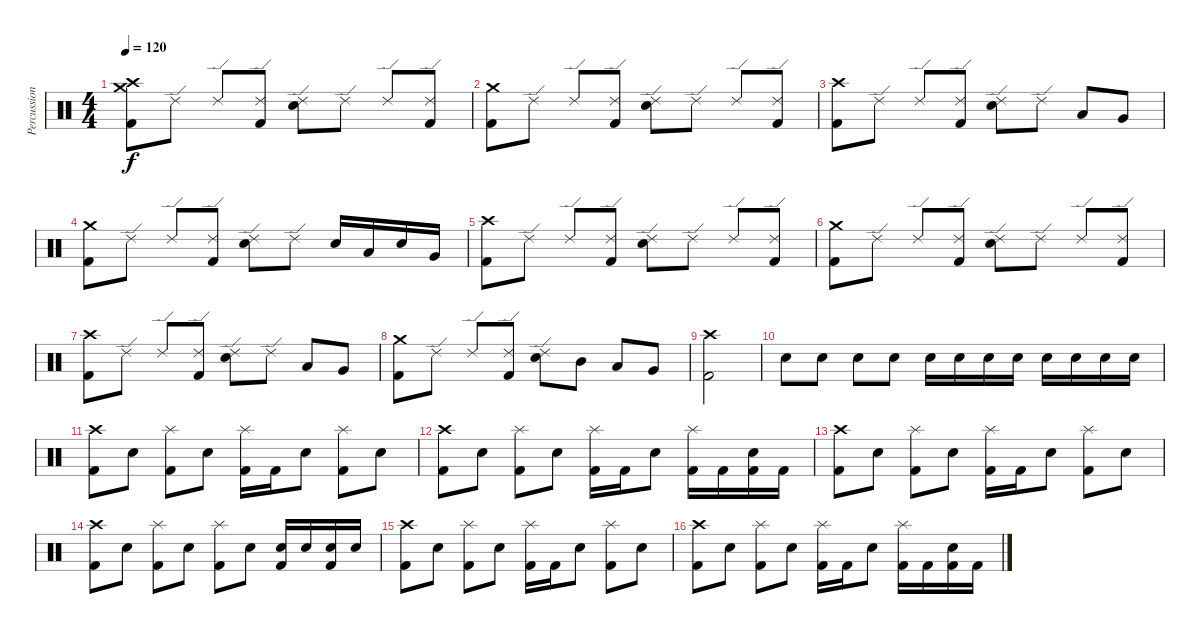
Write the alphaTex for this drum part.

\track ("Percussion" "Percussion") {instrument percussion}
\staff {score}
\articulation defaults
\ts (4 4)
\tempo 120
\clef neutral
\ks c
("Crash high (hit)" "Crash medium (hit)" "Kick (hit) 2").8{dy f} "Ride (edge) 2".8 "Ride (edge) 2".8 ("Ride (edge) 2" "Kick (hit) 2").8 ("Ride (edge) 2" "Electric Snare (hit)").8 "Ride (edge) 2".8 "Ride (edge) 2".8 ("Ride (edge) 2" "Kick (hit) 2").8 |
("Crash medium (hit)" "Kick (hit) 2").8 "Ride (edge) 2".8 "Ride (edge) 2".8 ("Ride (edge) 2" "Kick (hit) 2").8 ("Ride (edge) 2" "Electric Snare (hit)").8 "Ride (edge) 2".8 "Ride (edge) 2".8 ("Ride (edge) 2" "Kick (hit) 2").8 |
("Crash high (hit)" "Kick (hit) 2").8 "Ride (edge) 2".8 "Ride (edge) 2".8 ("Ride (edge) 2" "Kick (hit) 2").8 ("Ride (edge) 2" "Electric Snare (hit)").8 "Ride (edge) 2".8 "Low Tom (hit)".8 "Very Low Tom (hit)".8 |
("Crash medium (hit)" "Kick (hit) 2").8 "Ride (edge) 2".8 "Ride (edge) 2".8 ("Ride (edge) 2" "Kick (hit) 2").8 ("Ride (edge) 2" "Electric Snare (hit)").8 "Ride (edge) 2".8 "Electric Snare (hit)".16 "Low Tom (hit)".16 "Electric Snare (hit)".16 "Very Low Tom (hit)".16 |
("Crash high (hit)" "Kick (hit) 2").8 "Ride (edge) 2".8 "Ride (edge) 2".8 ("Ride (edge) 2" "Kick (hit) 2").8 ("Ride (edge) 2" "Electric Snare (hit)").8 "Ride (edge) 2".8 "Ride (edge) 2".8 ("Ride (edge) 2" "Kick (hit) 2").8 |
("Crash medium (hit)" "Kick (hit) 2").8 "Ride (edge) 2".8 "Ride (edge) 2".8 ("Ride (edge) 2" "Kick (hit) 2").8 ("Ride (edge) 2" "Electric Snare (hit)").8 "Ride (edge) 2".8 "Ride (edge) 2".8 ("Ride (edge) 2" "Kick (hit) 2").8 |
("Crash high (hit)" "Kick (hit) 2").8 "Ride (edge) 2".8 "Ride (edge) 2".8 ("Ride (edge) 2" "Kick (hit) 2").8 ("Ride (edge) 2" "Electric Snare (hit)").8 "Ride (edge) 2".8 "Low Tom (hit)".8 "Very Low Tom (hit)".8 |
("Crash medium (hit)" "Kick (hit) 2").8 "Ride (edge) 2".8 "Ride (edge) 2".8 ("Ride (edge) 2" "Kick (hit) 2").8 ("Ride (edge) 2" "Electric Snare (hit)").8 "Mid Tom (hit)".8 "Low Tom (hit)".8 "Very Low Tom (hit)".8 |
("Crash high (hit)" "Kick (hit) 2").2 |
"Electric Snare (hit)".8 "Electric Snare (hit)".8 "Electric Snare (hit)".8 "Electric Snare (hit)".8 "Electric Snare (hit)".16 "Electric Snare (hit)".16 "Electric Snare (hit)".16 "Electric Snare (hit)".16 "Electric Snare (hit)".16 "Electric Snare (hit)".16 "Electric Snare (hit)".16 "Electric Snare (hit)".16 |
("Crash high (hit)" "Kick (hit) 2").8 "Electric Snare (hit)".8 ("Splash (hit)" "Kick (hit) 2").8 "Electric Snare (hit)".8 ("Splash (hit)" "Kick (hit) 2").16 "Kick (hit) 2".16 "Electric Snare (hit)".8 ("Splash (hit)" "Kick (hit) 2").8 "Electric Snare (hit)".8 |
("Crash high (hit)" "Kick (hit) 2").8 "Electric Snare (hit)".8 ("Splash (hit)" "Kick (hit) 2").8 "Electric Snare (hit)".8 ("Splash (hit)" "Kick (hit) 2").16 "Kick (hit) 2".16 "Electric Snare (hit)".8 ("Splash (hit)" "Kick (hit) 2").16 "Kick (hit) 2".16 ("Electric Snare (hit)" "Kick (hit) 2").16 "Kick (hit) 2".16 |
("Crash high (hit)" "Kick (hit) 2").8 "Electric Snare (hit)".8 ("Splash (hit)" "Kick (hit) 2").8 "Electric Snare (hit)".8 ("Splash (hit)" "Kick (hit) 2").16 "Kick (hit) 2".16 "Electric Snare (hit)".8 ("Splash (hit)" "Kick (hit) 2").8 "Electric Snare (hit)".8 |
("Crash high (hit)" "Kick (hit) 2").8 "Electric Snare (hit)".8 ("Splash (hit)" "Kick (hit) 2").8 "Electric Snare (hit)".8 ("Splash (hit)" "Kick (hit) 2").8 "Electric Snare (hit)".8 ("Electric Snare (hit)" "Kick (hit) 2").16 "Electric Snare (hit)".16 ("Electric Snare (hit)" "Kick (hit) 2").16 "Electric Snare (hit)".16 |
("Crash high (hit)" "Kick (hit) 2").8 "Electric Snare (hit)".8 ("Splash (hit)" "Kick (hit) 2").8 "Electric Snare (hit)".8 ("Splash (hit)" "Kick (hit) 2").16 "Kick (hit) 2".16 "Electric Snare (hit)".8 ("Splash (hit)" "Kick (hit) 2").8 "Electric Snare (hit)".8 |
("Crash high (hit)" "Kick (hit) 2").8 "Electric Snare (hit)".8 ("Splash (hit)" "Kick (hit) 2").8 "Electric Snare (hit)".8 ("Splash (hit)" "Kick (hit) 2").16 "Kick (hit) 2".16 "Electric Snare (hit)".8 ("Splash (hit)" "Kick (hit) 2").16 "Kick (hit) 2".16 ("Electric Snare (hit)" "Kick (hit) 2").16 "Kick (hit) 2".16
